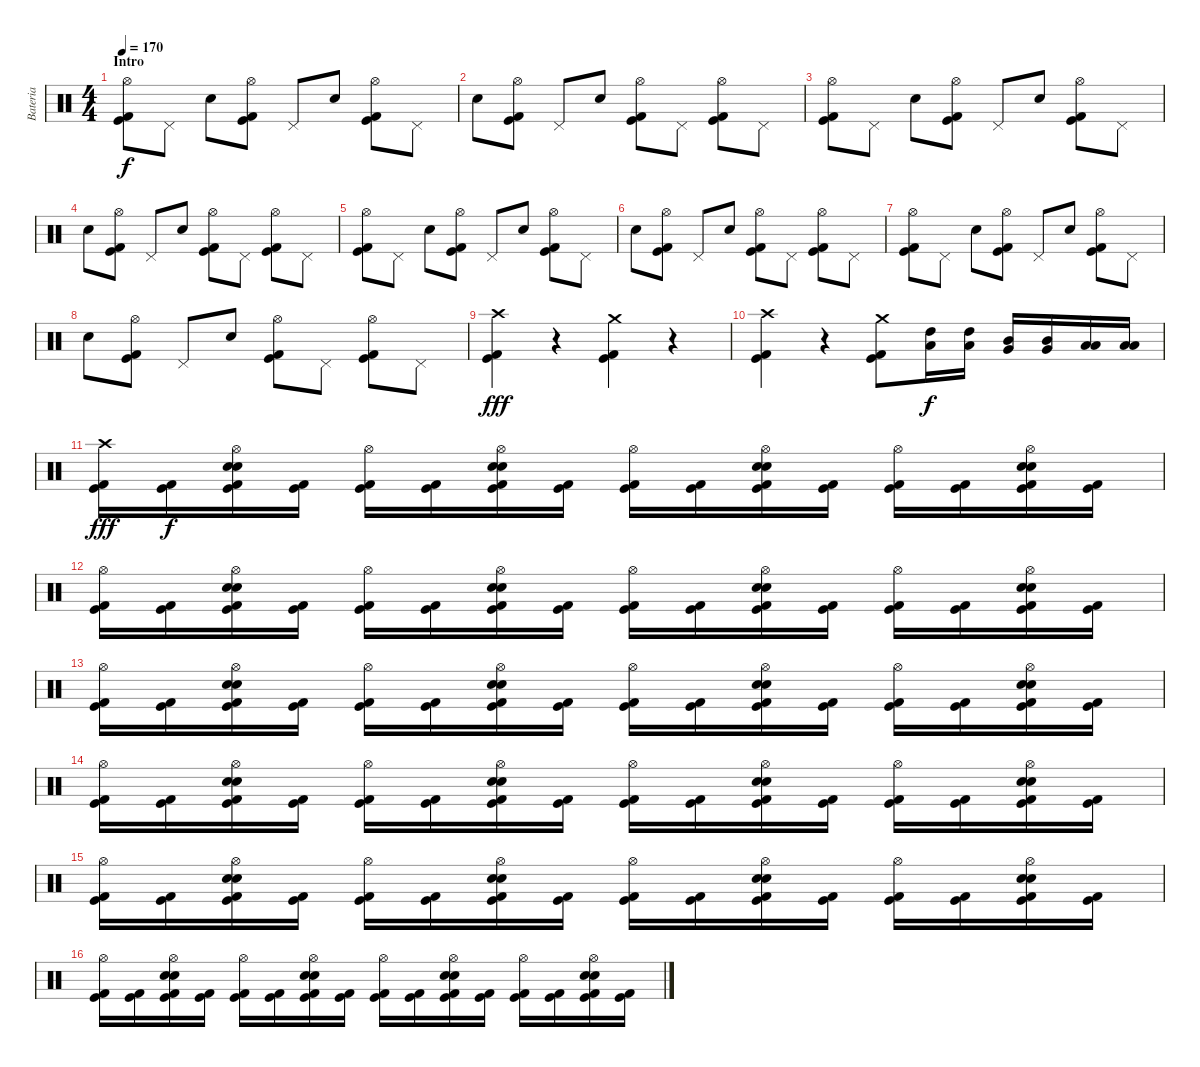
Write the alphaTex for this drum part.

\track ("Bateria" "Bateria") {instrument percussion}
\staff {score}
\articulation defaults
\ts (4 4)
\section ("" "Intro")
\tempo 170
\clef neutral
\ks c
("Hi-Hat (open)" "Kick (hit) 2" "Kick (hit)").8{dy f} "Pedal Hi-Hat (hit)".8 "Snare (hit)"{x}.8 ("Hi-Hat (open)" "Kick (hit) 2" "Kick (hit)").8 "Pedal Hi-Hat (hit)".8 "Snare (hit)"{x}.8 ("Hi-Hat (open)" "Kick (hit) 2" "Kick (hit)").8 "Pedal Hi-Hat (hit)".8 |
"Snare (hit)"{x}.8 ("Hi-Hat (open)" "Kick (hit) 2" "Kick (hit)").8 "Pedal Hi-Hat (hit)".8 "Snare (hit)"{x}.8 ("Hi-Hat (open)" "Kick (hit) 2" "Kick (hit)").8 "Pedal Hi-Hat (hit)".8 ("Hi-Hat (open)" "Kick (hit) 2" "Kick (hit)").8 "Pedal Hi-Hat (hit)".8 |
("Hi-Hat (open)" "Kick (hit) 2" "Kick (hit)").8 "Pedal Hi-Hat (hit)".8 "Snare (hit)"{x}.8 ("Hi-Hat (open)" "Kick (hit) 2" "Kick (hit)").8 "Pedal Hi-Hat (hit)".8 "Snare (hit)"{x}.8 ("Hi-Hat (open)" "Kick (hit) 2" "Kick (hit)").8 "Pedal Hi-Hat (hit)".8 |
"Snare (hit)"{x}.8 ("Hi-Hat (open)" "Kick (hit) 2" "Kick (hit)").8 "Pedal Hi-Hat (hit)".8 "Snare (hit)"{x}.8 ("Hi-Hat (open)" "Kick (hit) 2" "Kick (hit)").8 "Pedal Hi-Hat (hit)".8 ("Hi-Hat (open)" "Kick (hit) 2" "Kick (hit)").8 "Pedal Hi-Hat (hit)".8 |
("Hi-Hat (open)" "Kick (hit) 2" "Kick (hit)").8 "Pedal Hi-Hat (hit)".8 "Snare (hit)"{x}.8 ("Hi-Hat (open)" "Kick (hit) 2" "Kick (hit)").8 "Pedal Hi-Hat (hit)".8 "Snare (hit)"{x}.8 ("Hi-Hat (open)" "Kick (hit) 2" "Kick (hit)").8 "Pedal Hi-Hat (hit)".8 |
"Snare (hit)"{x}.8 ("Hi-Hat (open)" "Kick (hit) 2" "Kick (hit)").8 "Pedal Hi-Hat (hit)".8 "Snare (hit)"{x}.8 ("Hi-Hat (open)" "Kick (hit) 2" "Kick (hit)").8 "Pedal Hi-Hat (hit)".8 ("Hi-Hat (open)" "Kick (hit) 2" "Kick (hit)").8 "Pedal Hi-Hat (hit)".8 |
("Hi-Hat (open)" "Kick (hit) 2" "Kick (hit)").8 "Pedal Hi-Hat (hit)".8 "Snare (hit)"{x}.8 ("Hi-Hat (open)" "Kick (hit) 2" "Kick (hit)").8 "Pedal Hi-Hat (hit)".8 "Snare (hit)"{x}.8 ("Hi-Hat (open)" "Kick (hit) 2" "Kick (hit)").8 "Pedal Hi-Hat (hit)".8 |
"Snare (hit)"{x}.8 ("Hi-Hat (open)" "Kick (hit) 2" "Kick (hit)").8 "Pedal Hi-Hat (hit)".8 "Snare (hit)"{x}.8 ("Hi-Hat (open)" "Kick (hit) 2" "Kick (hit)").8 "Pedal Hi-Hat (hit)".8 ("Hi-Hat (open)" "Kick (hit) 2" "Kick (hit)").8 "Pedal Hi-Hat (hit)".8 |
("Crash high (hit)" "Kick (hit) 2" "Kick (hit)").4{dy fff} r.4 ("Crash medium (hit)" "Kick (hit) 2" "Kick (hit)").4 r.4 |
("Crash high (hit)" "Kick (hit) 2" "Kick (hit)").4 r.4 ("Crash medium (hit)" "Kick (hit) 2" "Kick (hit)").8 ("High Tom (hit)" "Low Tom (hit)").16{dy f} ("High Tom (hit)" "Low Tom (hit)").16 ("Mid Tom (hit)" "Very Low Tom (hit)").16 ("Mid Tom (hit)" "Very Low Tom (hit)").16 ("Low Tom (hit)" "Low Floor Tom (hit)").16 ("Low Tom (hit)" "Low Floor Tom (hit)").16 |
("Crash high (hit)" "Kick (hit) 2" "Kick (hit)").16{dy fff} ("Kick (hit) 2" "Kick (hit)").16{dy f} ("Hi-Hat (open)" "Electric Snare (hit)" "Snare (hit) 2" "Kick (hit) 2" "Kick (hit)").16 ("Kick (hit) 2" "Kick (hit)").16 ("Hi-Hat (open)" "Kick (hit) 2" "Kick (hit)").16 ("Kick (hit) 2" "Kick (hit)").16 ("Hi-Hat (open)" "Electric Snare (hit)" "Snare (hit) 2" "Kick (hit) 2" "Kick (hit)").16 ("Kick (hit) 2" "Kick (hit)").16 ("Hi-Hat (open)" "Kick (hit) 2" "Kick (hit)").16 ("Kick (hit) 2" "Kick (hit)").16 ("Hi-Hat (open)" "Electric Snare (hit)" "Snare (hit) 2" "Kick (hit) 2" "Kick (hit)").16 ("Kick (hit) 2" "Kick (hit)").16 ("Hi-Hat (open)" "Kick (hit) 2" "Kick (hit)").16 ("Kick (hit) 2" "Kick (hit)").16 ("Hi-Hat (open)" "Electric Snare (hit)" "Snare (hit) 2" "Kick (hit) 2" "Kick (hit)").16 ("Kick (hit) 2" "Kick (hit)").16 |
("Hi-Hat (open)" "Kick (hit) 2" "Kick (hit)").16 ("Kick (hit) 2" "Kick (hit)").16 ("Hi-Hat (open)" "Electric Snare (hit)" "Snare (hit) 2" "Kick (hit) 2" "Kick (hit)").16 ("Kick (hit) 2" "Kick (hit)").16 ("Hi-Hat (open)" "Kick (hit) 2" "Kick (hit)").16 ("Kick (hit) 2" "Kick (hit)").16 ("Hi-Hat (open)" "Electric Snare (hit)" "Snare (hit) 2" "Kick (hit) 2" "Kick (hit)").16 ("Kick (hit) 2" "Kick (hit)").16 ("Hi-Hat (open)" "Kick (hit) 2" "Kick (hit)").16 ("Kick (hit) 2" "Kick (hit)").16 ("Hi-Hat (open)" "Electric Snare (hit)" "Snare (hit) 2" "Kick (hit) 2" "Kick (hit)").16 ("Kick (hit) 2" "Kick (hit)").16 ("Hi-Hat (open)" "Kick (hit) 2" "Kick (hit)").16 ("Kick (hit) 2" "Kick (hit)").16 ("Hi-Hat (open)" "Electric Snare (hit)" "Snare (hit) 2" "Kick (hit) 2" "Kick (hit)").16 ("Kick (hit) 2" "Kick (hit)").16 |
("Hi-Hat (open)" "Kick (hit) 2" "Kick (hit)").16 ("Kick (hit) 2" "Kick (hit)").16 ("Hi-Hat (open)" "Electric Snare (hit)" "Snare (hit) 2" "Kick (hit) 2" "Kick (hit)").16 ("Kick (hit) 2" "Kick (hit)").16 ("Hi-Hat (open)" "Kick (hit) 2" "Kick (hit)").16 ("Kick (hit) 2" "Kick (hit)").16 ("Hi-Hat (open)" "Electric Snare (hit)" "Snare (hit) 2" "Kick (hit) 2" "Kick (hit)").16 ("Kick (hit) 2" "Kick (hit)").16 ("Hi-Hat (open)" "Kick (hit) 2" "Kick (hit)").16 ("Kick (hit) 2" "Kick (hit)").16 ("Hi-Hat (open)" "Electric Snare (hit)" "Snare (hit) 2" "Kick (hit) 2" "Kick (hit)").16 ("Kick (hit) 2" "Kick (hit)").16 ("Hi-Hat (open)" "Kick (hit) 2" "Kick (hit)").16 ("Kick (hit) 2" "Kick (hit)").16 ("Hi-Hat (open)" "Electric Snare (hit)" "Snare (hit) 2" "Kick (hit) 2" "Kick (hit)").16 ("Kick (hit) 2" "Kick (hit)").16 |
("Hi-Hat (open)" "Kick (hit) 2" "Kick (hit)").16 ("Kick (hit) 2" "Kick (hit)").16 ("Hi-Hat (open)" "Electric Snare (hit)" "Snare (hit) 2" "Kick (hit) 2" "Kick (hit)").16 ("Kick (hit) 2" "Kick (hit)").16 ("Hi-Hat (open)" "Kick (hit) 2" "Kick (hit)").16 ("Kick (hit) 2" "Kick (hit)").16 ("Hi-Hat (open)" "Electric Snare (hit)" "Snare (hit) 2" "Kick (hit) 2" "Kick (hit)").16 ("Kick (hit) 2" "Kick (hit)").16 ("Hi-Hat (open)" "Kick (hit) 2" "Kick (hit)").16 ("Kick (hit) 2" "Kick (hit)").16 ("Hi-Hat (open)" "Electric Snare (hit)" "Snare (hit) 2" "Kick (hit) 2" "Kick (hit)").16 ("Kick (hit) 2" "Kick (hit)").16 ("Hi-Hat (open)" "Kick (hit) 2" "Kick (hit)").16 ("Kick (hit) 2" "Kick (hit)").16 ("Hi-Hat (open)" "Electric Snare (hit)" "Snare (hit) 2" "Kick (hit) 2" "Kick (hit)").16 ("Kick (hit) 2" "Kick (hit)").16 |
("Hi-Hat (open)" "Kick (hit) 2" "Kick (hit)").16 ("Kick (hit) 2" "Kick (hit)").16 ("Hi-Hat (open)" "Electric Snare (hit)" "Snare (hit) 2" "Kick (hit) 2" "Kick (hit)").16 ("Kick (hit) 2" "Kick (hit)").16 ("Hi-Hat (open)" "Kick (hit) 2" "Kick (hit)").16 ("Kick (hit) 2" "Kick (hit)").16 ("Hi-Hat (open)" "Electric Snare (hit)" "Snare (hit) 2" "Kick (hit) 2" "Kick (hit)").16 ("Kick (hit) 2" "Kick (hit)").16 ("Hi-Hat (open)" "Kick (hit) 2" "Kick (hit)").16 ("Kick (hit) 2" "Kick (hit)").16 ("Hi-Hat (open)" "Electric Snare (hit)" "Snare (hit) 2" "Kick (hit) 2" "Kick (hit)").16 ("Kick (hit) 2" "Kick (hit)").16 ("Hi-Hat (open)" "Kick (hit) 2" "Kick (hit)").16 ("Kick (hit) 2" "Kick (hit)").16 ("Hi-Hat (open)" "Electric Snare (hit)" "Snare (hit) 2" "Kick (hit) 2" "Kick (hit)").16 ("Kick (hit) 2" "Kick (hit)").16 |
("Hi-Hat (open)" "Kick (hit) 2" "Kick (hit)").16 ("Kick (hit) 2" "Kick (hit)").16 ("Hi-Hat (open)" "Electric Snare (hit)" "Snare (hit) 2" "Kick (hit) 2" "Kick (hit)").16 ("Kick (hit) 2" "Kick (hit)").16 ("Hi-Hat (open)" "Kick (hit) 2" "Kick (hit)").16 ("Kick (hit) 2" "Kick (hit)").16 ("Hi-Hat (open)" "Electric Snare (hit)" "Snare (hit) 2" "Kick (hit) 2" "Kick (hit)").16 ("Kick (hit) 2" "Kick (hit)").16 ("Hi-Hat (open)" "Kick (hit) 2" "Kick (hit)").16 ("Kick (hit) 2" "Kick (hit)").16 ("Hi-Hat (open)" "Electric Snare (hit)" "Snare (hit) 2" "Kick (hit) 2" "Kick (hit)").16 ("Kick (hit) 2" "Kick (hit)").16 ("Hi-Hat (open)" "Kick (hit) 2" "Kick (hit)").16 ("Kick (hit) 2" "Kick (hit)").16 ("Hi-Hat (open)" "Electric Snare (hit)" "Snare (hit) 2" "Kick (hit) 2" "Kick (hit)").16 ("Kick (hit) 2" "Kick (hit)").16
